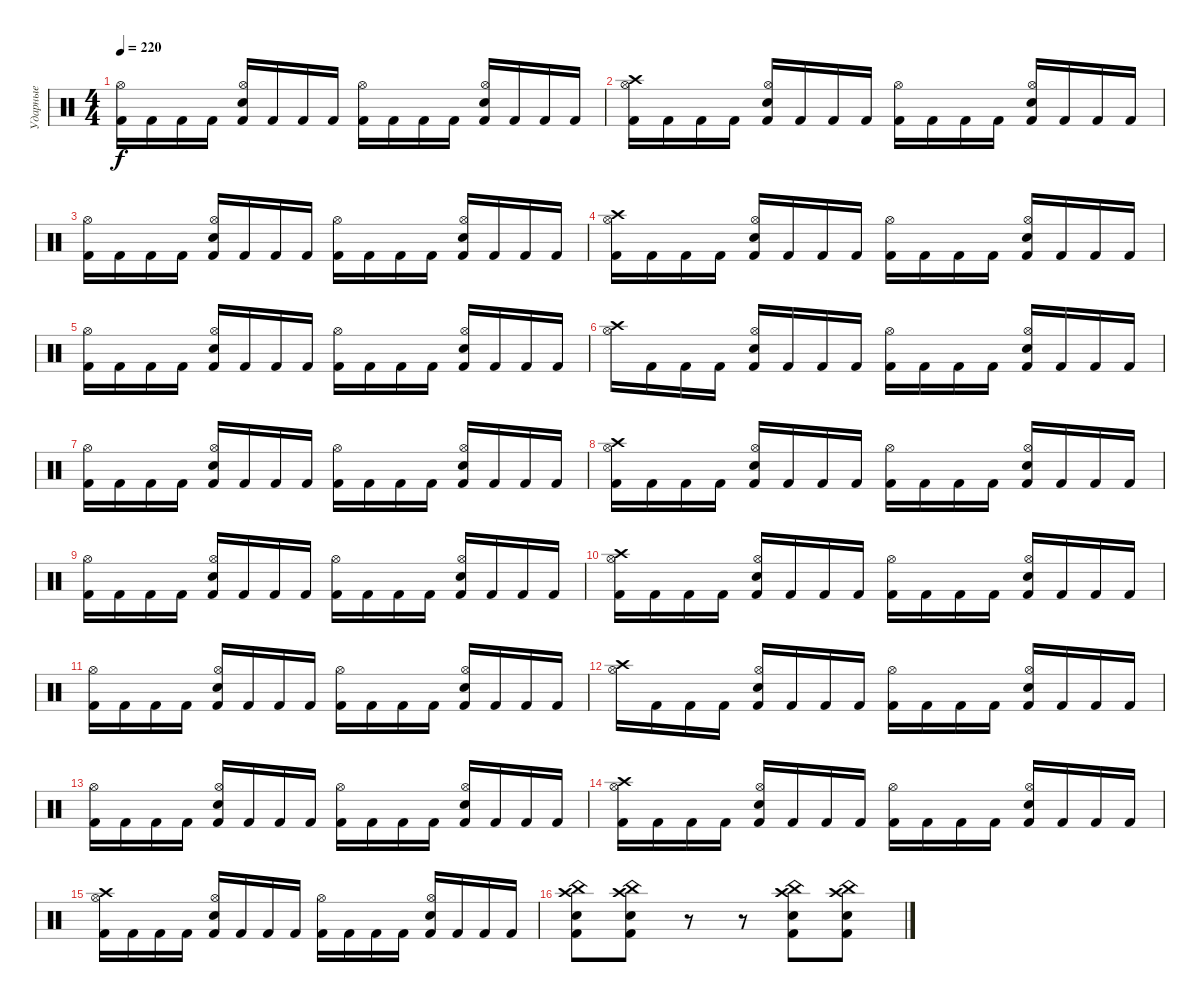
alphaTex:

\track ("Ударные" "Ударные") {instrument percussion}
\staff {score}
\articulation defaults
\ts (4 4)
\tempo 220
\clef neutral
\ks c
("Kick (hit) 2" "Hi-Hat (open)").16{dy f} "Kick (hit) 2".16 "Kick (hit) 2".16 "Kick (hit) 2".16 ("Kick (hit) 2" "Electric Snare (hit)" "Hi-Hat (open)").16 "Kick (hit) 2".16 "Kick (hit) 2".16 "Kick (hit) 2".16 ("Kick (hit) 2" "Hi-Hat (open)").16 "Kick (hit) 2".16 "Kick (hit) 2".16 "Kick (hit) 2".16 ("Kick (hit) 2" "Electric Snare (hit)" "Hi-Hat (open)").16 "Kick (hit) 2".16 "Kick (hit) 2".16 "Kick (hit) 2".16 |
("Kick (hit) 2" "Hi-Hat (open)" "Crash high (hit)").16 "Kick (hit) 2".16 "Kick (hit) 2".16 "Kick (hit) 2".16 ("Kick (hit) 2" "Electric Snare (hit)" "Hi-Hat (open)").16 "Kick (hit) 2".16 "Kick (hit) 2".16 "Kick (hit) 2".16 ("Kick (hit) 2" "Hi-Hat (open)").16 "Kick (hit) 2".16 "Kick (hit) 2".16 "Kick (hit) 2".16 ("Kick (hit) 2" "Electric Snare (hit)" "Hi-Hat (open)").16 "Kick (hit) 2".16 "Kick (hit) 2".16 "Kick (hit) 2".16 |
("Kick (hit) 2" "Hi-Hat (open)").16 "Kick (hit) 2".16 "Kick (hit) 2".16 "Kick (hit) 2".16 ("Kick (hit) 2" "Electric Snare (hit)" "Hi-Hat (open)").16 "Kick (hit) 2".16 "Kick (hit) 2".16 "Kick (hit) 2".16 ("Kick (hit) 2" "Hi-Hat (open)").16 "Kick (hit) 2".16 "Kick (hit) 2".16 "Kick (hit) 2".16 ("Kick (hit) 2" "Electric Snare (hit)" "Hi-Hat (open)").16 "Kick (hit) 2".16 "Kick (hit) 2".16 "Kick (hit) 2".16 |
("Kick (hit) 2" "Hi-Hat (open)" "Crash high (hit)").16 "Kick (hit) 2".16 "Kick (hit) 2".16 "Kick (hit) 2".16 ("Kick (hit) 2" "Electric Snare (hit)" "Hi-Hat (open)").16 "Kick (hit) 2".16 "Kick (hit) 2".16 "Kick (hit) 2".16 ("Kick (hit) 2" "Hi-Hat (open)").16 "Kick (hit) 2".16 "Kick (hit) 2".16 "Kick (hit) 2".16 ("Kick (hit) 2" "Electric Snare (hit)" "Hi-Hat (open)").16 "Kick (hit) 2".16 "Kick (hit) 2".16 "Kick (hit) 2".16 |
("Kick (hit) 2" "Hi-Hat (open)").16 "Kick (hit) 2".16 "Kick (hit) 2".16 "Kick (hit) 2".16 ("Kick (hit) 2" "Electric Snare (hit)" "Hi-Hat (open)").16 "Kick (hit) 2".16 "Kick (hit) 2".16 "Kick (hit) 2".16 ("Kick (hit) 2" "Hi-Hat (open)").16 "Kick (hit) 2".16 "Kick (hit) 2".16 "Kick (hit) 2".16 ("Kick (hit) 2" "Electric Snare (hit)" "Hi-Hat (open)").16 "Kick (hit) 2".16 "Kick (hit) 2".16 "Kick (hit) 2".16 |
("Crash high (hit)" "Hi-Hat (open)").16 "Kick (hit) 2".16 "Kick (hit) 2".16 "Kick (hit) 2".16 ("Kick (hit) 2" "Electric Snare (hit)" "Hi-Hat (open)").16 "Kick (hit) 2".16 "Kick (hit) 2".16 "Kick (hit) 2".16 ("Kick (hit) 2" "Hi-Hat (open)").16 "Kick (hit) 2".16 "Kick (hit) 2".16 "Kick (hit) 2".16 ("Kick (hit) 2" "Electric Snare (hit)" "Hi-Hat (open)").16 "Kick (hit) 2".16 "Kick (hit) 2".16 "Kick (hit) 2".16 |
("Kick (hit) 2" "Hi-Hat (open)").16 "Kick (hit) 2".16 "Kick (hit) 2".16 "Kick (hit) 2".16 ("Kick (hit) 2" "Electric Snare (hit)" "Hi-Hat (open)").16 "Kick (hit) 2".16 "Kick (hit) 2".16 "Kick (hit) 2".16 ("Kick (hit) 2" "Hi-Hat (open)").16 "Kick (hit) 2".16 "Kick (hit) 2".16 "Kick (hit) 2".16 ("Kick (hit) 2" "Electric Snare (hit)" "Hi-Hat (open)").16 "Kick (hit) 2".16 "Kick (hit) 2".16 "Kick (hit) 2".16 |
("Kick (hit) 2" "Hi-Hat (open)" "Crash high (hit)").16 "Kick (hit) 2".16 "Kick (hit) 2".16 "Kick (hit) 2".16 ("Kick (hit) 2" "Electric Snare (hit)" "Hi-Hat (open)").16 "Kick (hit) 2".16 "Kick (hit) 2".16 "Kick (hit) 2".16 ("Kick (hit) 2" "Hi-Hat (open)").16 "Kick (hit) 2".16 "Kick (hit) 2".16 "Kick (hit) 2".16 ("Kick (hit) 2" "Electric Snare (hit)" "Hi-Hat (open)").16 "Kick (hit) 2".16 "Kick (hit) 2".16 "Kick (hit) 2".16 |
("Kick (hit) 2" "Hi-Hat (open)").16 "Kick (hit) 2".16 "Kick (hit) 2".16 "Kick (hit) 2".16 ("Kick (hit) 2" "Electric Snare (hit)" "Hi-Hat (open)").16 "Kick (hit) 2".16 "Kick (hit) 2".16 "Kick (hit) 2".16 ("Kick (hit) 2" "Hi-Hat (open)").16 "Kick (hit) 2".16 "Kick (hit) 2".16 "Kick (hit) 2".16 ("Kick (hit) 2" "Electric Snare (hit)" "Hi-Hat (open)").16 "Kick (hit) 2".16 "Kick (hit) 2".16 "Kick (hit) 2".16 |
("Kick (hit) 2" "Hi-Hat (open)" "Crash high (hit)").16 "Kick (hit) 2".16 "Kick (hit) 2".16 "Kick (hit) 2".16 ("Kick (hit) 2" "Electric Snare (hit)" "Hi-Hat (open)").16 "Kick (hit) 2".16 "Kick (hit) 2".16 "Kick (hit) 2".16 ("Kick (hit) 2" "Hi-Hat (open)").16 "Kick (hit) 2".16 "Kick (hit) 2".16 "Kick (hit) 2".16 ("Kick (hit) 2" "Electric Snare (hit)" "Hi-Hat (open)").16 "Kick (hit) 2".16 "Kick (hit) 2".16 "Kick (hit) 2".16 |
("Kick (hit) 2" "Hi-Hat (open)").16 "Kick (hit) 2".16 "Kick (hit) 2".16 "Kick (hit) 2".16 ("Kick (hit) 2" "Electric Snare (hit)" "Hi-Hat (open)").16 "Kick (hit) 2".16 "Kick (hit) 2".16 "Kick (hit) 2".16 ("Kick (hit) 2" "Hi-Hat (open)").16 "Kick (hit) 2".16 "Kick (hit) 2".16 "Kick (hit) 2".16 ("Kick (hit) 2" "Electric Snare (hit)" "Hi-Hat (open)").16 "Kick (hit) 2".16 "Kick (hit) 2".16 "Kick (hit) 2".16 |
("Crash high (hit)" "Hi-Hat (open)").16 "Kick (hit) 2".16 "Kick (hit) 2".16 "Kick (hit) 2".16 ("Kick (hit) 2" "Electric Snare (hit)" "Hi-Hat (open)").16 "Kick (hit) 2".16 "Kick (hit) 2".16 "Kick (hit) 2".16 ("Kick (hit) 2" "Hi-Hat (open)").16 "Kick (hit) 2".16 "Kick (hit) 2".16 "Kick (hit) 2".16 ("Kick (hit) 2" "Electric Snare (hit)" "Hi-Hat (open)").16 "Kick (hit) 2".16 "Kick (hit) 2".16 "Kick (hit) 2".16 |
("Kick (hit) 2" "Hi-Hat (open)").16 "Kick (hit) 2".16 "Kick (hit) 2".16 "Kick (hit) 2".16 ("Kick (hit) 2" "Electric Snare (hit)" "Hi-Hat (open)").16 "Kick (hit) 2".16 "Kick (hit) 2".16 "Kick (hit) 2".16 ("Kick (hit) 2" "Hi-Hat (open)").16 "Kick (hit) 2".16 "Kick (hit) 2".16 "Kick (hit) 2".16 ("Kick (hit) 2" "Electric Snare (hit)" "Hi-Hat (open)").16 "Kick (hit) 2".16 "Kick (hit) 2".16 "Kick (hit) 2".16 |
("Kick (hit) 2" "Hi-Hat (open)" "Crash high (hit)").16 "Kick (hit) 2".16 "Kick (hit) 2".16 "Kick (hit) 2".16 ("Kick (hit) 2" "Electric Snare (hit)" "Hi-Hat (open)").16 "Kick (hit) 2".16 "Kick (hit) 2".16 "Kick (hit) 2".16 ("Kick (hit) 2" "Hi-Hat (open)").16 "Kick (hit) 2".16 "Kick (hit) 2".16 "Kick (hit) 2".16 ("Kick (hit) 2" "Electric Snare (hit)" "Hi-Hat (open)").16 "Kick (hit) 2".16 "Kick (hit) 2".16 "Kick (hit) 2".16 |
("Kick (hit) 2" "Hi-Hat (open)" "Crash high (hit)").16 "Kick (hit) 2".16 "Kick (hit) 2".16 "Kick (hit) 2".16 ("Kick (hit) 2" "Electric Snare (hit)" "Hi-Hat (open)").16 "Kick (hit) 2".16 "Kick (hit) 2".16 "Kick (hit) 2".16 ("Kick (hit) 2" "Hi-Hat (open)").16 "Kick (hit) 2".16 "Kick (hit) 2".16 "Kick (hit) 2".16 ("Kick (hit) 2" "Electric Snare (hit)" "Hi-Hat (open)").16 "Kick (hit) 2".16 "Kick (hit) 2".16 "Kick (hit) 2".16 |
("Kick (hit) 2" "Electric Snare (hit)" "Crash high (hit)" "China (hit)").8 ("China (hit)" "Crash high (hit)" "Kick (hit) 2" "Electric Snare (hit)").8 r.8 r.8 ("Kick (hit) 2" "Electric Snare (hit)" "Crash high (hit)" "China (hit)").8 ("China (hit)" "Crash high (hit)" "Kick (hit) 2" "Electric Snare (hit)").8
